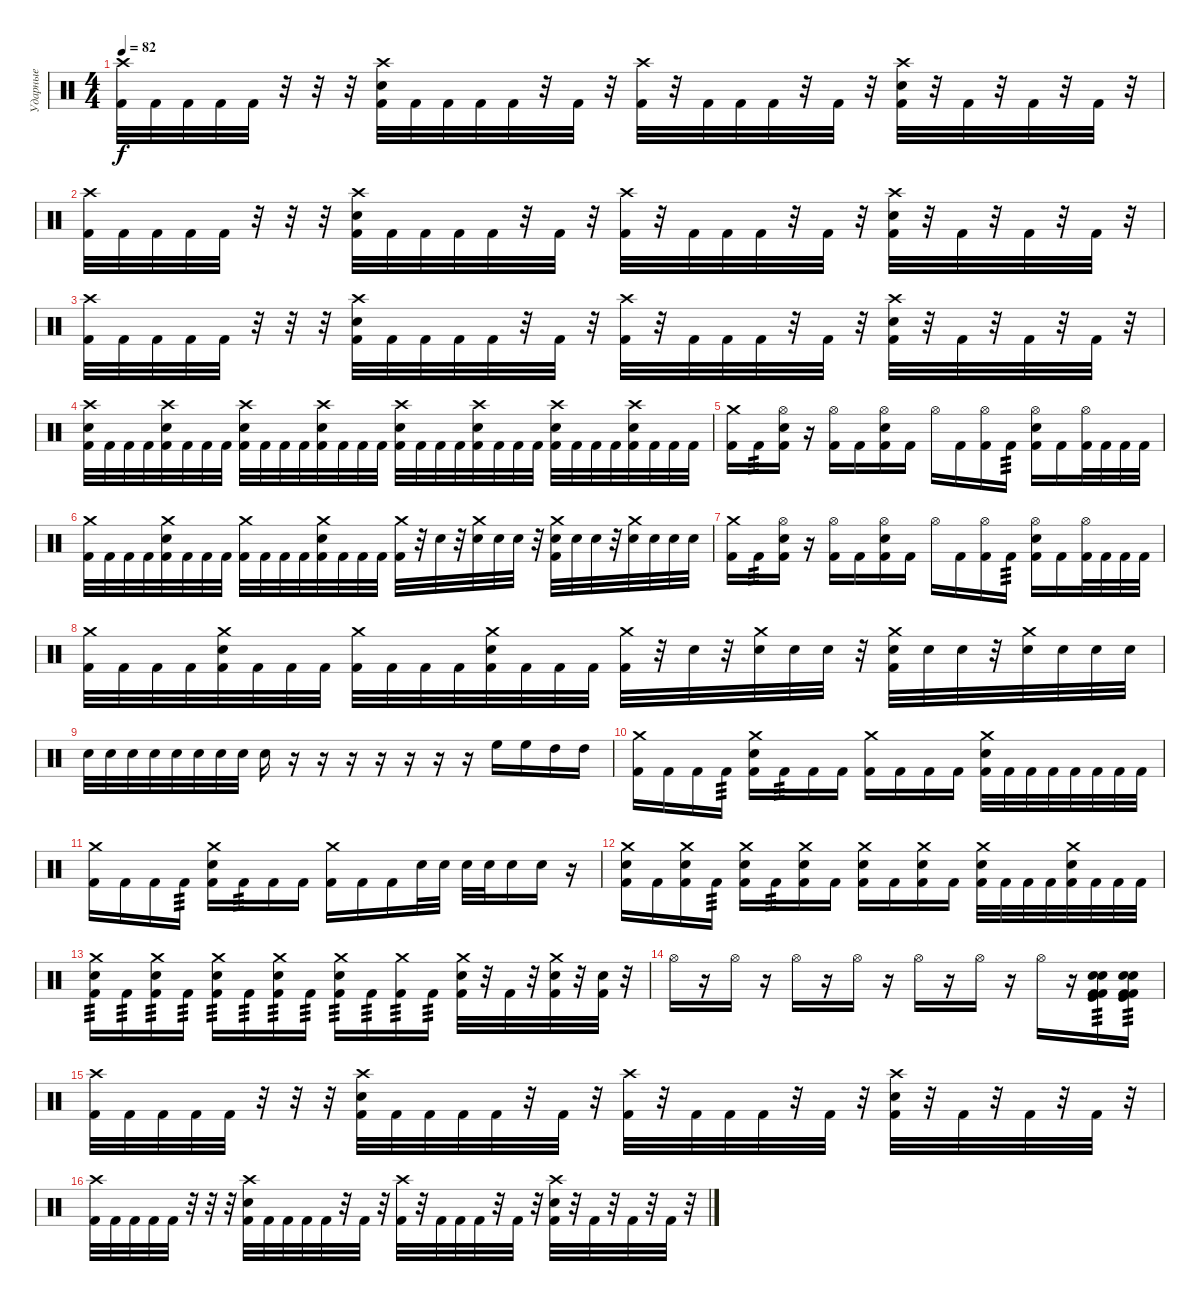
\track ("Ударные" "Ударные") {instrument percussion}
\staff {score}
\articulation defaults
\ts (4 4)
\tempo 82
\clef neutral
\ks c
("Crash high (hit)" "Kick (hit) 2").32{dy f} "Kick (hit) 2".32 "Kick (hit) 2".32 "Kick (hit) 2".32 "Kick (hit) 2".32 r.32 r.32 r.32 ("Crash high (hit)" "Snare (hit) 2" "Kick (hit) 2").32 "Kick (hit) 2".32 "Kick (hit) 2".32 "Kick (hit) 2".32 "Kick (hit) 2".32 r.32 "Kick (hit) 2".32 r.32 ("Crash high (hit)" "Kick (hit) 2").32 r.32 "Kick (hit) 2".32 "Kick (hit) 2".32 "Kick (hit) 2".32 r.32 "Kick (hit) 2".32 r.32 ("Crash high (hit)" "Snare (hit) 2" "Kick (hit) 2").32 r.32 "Kick (hit) 2".32 r.32 "Kick (hit) 2".32 r.32 "Kick (hit) 2".32 r.32 |
("Crash high (hit)" "Kick (hit) 2").32 "Kick (hit) 2".32 "Kick (hit) 2".32 "Kick (hit) 2".32 "Kick (hit) 2".32 r.32 r.32 r.32 ("Crash high (hit)" "Snare (hit) 2" "Kick (hit) 2").32 "Kick (hit) 2".32 "Kick (hit) 2".32 "Kick (hit) 2".32 "Kick (hit) 2".32 r.32 "Kick (hit) 2".32 r.32 ("Crash high (hit)" "Kick (hit) 2").32 r.32 "Kick (hit) 2".32 "Kick (hit) 2".32 "Kick (hit) 2".32 r.32 "Kick (hit) 2".32 r.32 ("Crash high (hit)" "Snare (hit) 2" "Kick (hit) 2").32 r.32 "Kick (hit) 2".32 r.32 "Kick (hit) 2".32 r.32 "Kick (hit) 2".32 r.32 |
("Crash high (hit)" "Kick (hit) 2").32 "Kick (hit) 2".32 "Kick (hit) 2".32 "Kick (hit) 2".32 "Kick (hit) 2".32 r.32 r.32 r.32 ("Crash high (hit)" "Snare (hit) 2" "Kick (hit) 2").32 "Kick (hit) 2".32 "Kick (hit) 2".32 "Kick (hit) 2".32 "Kick (hit) 2".32 r.32 "Kick (hit) 2".32 r.32 ("Crash high (hit)" "Kick (hit) 2").32 r.32 "Kick (hit) 2".32 "Kick (hit) 2".32 "Kick (hit) 2".32 r.32 "Kick (hit) 2".32 r.32 ("Crash high (hit)" "Snare (hit) 2" "Kick (hit) 2").32 r.32 "Kick (hit) 2".32 r.32 "Kick (hit) 2".32 r.32 "Kick (hit) 2".32 r.32 |
("Crash high (hit)" "Snare (hit) 2" "Kick (hit) 2").32 "Kick (hit) 2".32 "Kick (hit) 2".32 "Kick (hit) 2".32 ("Crash high (hit)" "Snare (hit) 2" "Kick (hit) 2").32 "Kick (hit) 2".32 "Kick (hit) 2".32 "Kick (hit) 2".32 ("Crash high (hit)" "Snare (hit) 2" "Kick (hit) 2").32 "Kick (hit) 2".32 "Kick (hit) 2".32 "Kick (hit) 2".32 ("Crash high (hit)" "Snare (hit) 2" "Kick (hit) 2").32 "Kick (hit) 2".32 "Kick (hit) 2".32 "Kick (hit) 2".32 ("Crash high (hit)" "Snare (hit) 2" "Kick (hit) 2").32 "Kick (hit) 2".32 "Kick (hit) 2".32 "Kick (hit) 2".32 ("Crash high (hit)" "Snare (hit) 2" "Kick (hit) 2").32 "Kick (hit) 2".32 "Kick (hit) 2".32 "Kick (hit) 2".32 ("Crash high (hit)" "Snare (hit) 2" "Kick (hit) 2").32 "Kick (hit) 2".32 "Kick (hit) 2".32 "Kick (hit) 2".32 ("Crash high (hit)" "Snare (hit) 2" "Kick (hit) 2").32 "Kick (hit) 2".32 "Kick (hit) 2".32 "Kick (hit) 2".32 |
("Crash medium (hit)" "Kick (hit) 2").16 "Kick (hit) 2".16{tp 3} ("Hi-Hat (open)" "Snare (hit) 2" "Kick (hit) 2").16 r.16 ("Hi-Hat (open)" "Kick (hit) 2").16 "Kick (hit) 2".16 ("Hi-Hat (open)" "Snare (hit) 2" "Kick (hit) 2").16 "Kick (hit) 2".16 "Hi-Hat (open)".16 "Kick (hit) 2".16 ("Hi-Hat (open)" "Kick (hit) 2").16 "Kick (hit) 2".16{tp 3} ("Hi-Hat (open)" "Snare (hit) 2" "Kick (hit) 2").16 "Kick (hit) 2".16 ("Hi-Hat (open)" "Kick (hit) 2").32 "Kick (hit) 2".32 "Kick (hit) 2".32 "Kick (hit) 2".32 |
("Crash medium (hit)" "Kick (hit) 2").32 "Kick (hit) 2".32 "Kick (hit) 2".32 "Kick (hit) 2".32 ("Crash medium (hit)" "Snare (hit) 2" "Kick (hit) 2").32 "Kick (hit) 2".32 "Kick (hit) 2".32 "Kick (hit) 2".32 ("Crash medium (hit)" "Kick (hit) 2").32 "Kick (hit) 2".32 "Kick (hit) 2".32 "Kick (hit) 2".32 ("Crash medium (hit)" "Snare (hit) 2" "Kick (hit) 2").32 "Kick (hit) 2".32 "Kick (hit) 2".32 "Kick (hit) 2".32 ("Crash medium (hit)" "Kick (hit) 2").32 r.32 "Snare (hit) 2".32 r.32 ("Crash medium (hit)" "Snare (hit) 2").32 "Snare (hit) 2".32 "Snare (hit) 2".32 r.32 ("Crash medium (hit)" "Snare (hit) 2" "Kick (hit) 2").32 "Snare (hit) 2".32 "Snare (hit) 2".32 r.32 ("Crash medium (hit)" "Snare (hit) 2").32 "Snare (hit) 2".32 "Snare (hit) 2".32 "Snare (hit) 2".32 |
("Crash medium (hit)" "Kick (hit) 2").16 "Kick (hit) 2".16{tp 3} ("Hi-Hat (open)" "Snare (hit) 2" "Kick (hit) 2").16 r.16 ("Hi-Hat (open)" "Kick (hit) 2").16 "Kick (hit) 2".16 ("Hi-Hat (open)" "Snare (hit) 2" "Kick (hit) 2").16 "Kick (hit) 2".16 "Hi-Hat (open)".16 "Kick (hit) 2".16 ("Hi-Hat (open)" "Kick (hit) 2").16 "Kick (hit) 2".16{tp 3} ("Hi-Hat (open)" "Snare (hit) 2" "Kick (hit) 2").16 "Kick (hit) 2".16 ("Hi-Hat (open)" "Kick (hit) 2").32 "Kick (hit) 2".32 "Kick (hit) 2".32 "Kick (hit) 2".32 |
("Crash medium (hit)" "Kick (hit) 2").32 "Kick (hit) 2".32 "Kick (hit) 2".32 "Kick (hit) 2".32 ("Crash medium (hit)" "Snare (hit) 2" "Kick (hit) 2").32 "Kick (hit) 2".32 "Kick (hit) 2".32 "Kick (hit) 2".32 ("Crash medium (hit)" "Kick (hit) 2").32 "Kick (hit) 2".32 "Kick (hit) 2".32 "Kick (hit) 2".32 ("Crash medium (hit)" "Snare (hit) 2" "Kick (hit) 2").32 "Kick (hit) 2".32 "Kick (hit) 2".32 "Kick (hit) 2".32 ("Crash medium (hit)" "Kick (hit) 2").32 r.32 "Snare (hit) 2".32 r.32 ("Crash medium (hit)" "Snare (hit) 2").32 "Snare (hit) 2".32 "Snare (hit) 2".32 r.32 ("Crash medium (hit)" "Snare (hit) 2" "Kick (hit) 2").32 "Snare (hit) 2".32 "Snare (hit) 2".32 r.32 ("Crash medium (hit)" "Snare (hit) 2").32 "Snare (hit) 2".32 "Snare (hit) 2".32 "Snare (hit) 2".32 |
"Snare (hit) 2".32 "Snare (hit) 2".32 "Snare (hit) 2".32 "Snare (hit) 2".32 "Snare (hit) 2".32 "Snare (hit) 2".32 "Snare (hit) 2".32 "Snare (hit) 2".32 "Snare (hit) 2".16 r.16 r.16 r.16 r.16 r.16 r.16 r.16 "High Floor Tom (hit)".16 "High Floor Tom (hit)".16 "High Tom (hit)".16 "High Tom (hit)".16 |
("Crash medium (hit)" "Kick (hit) 2").16 "Kick (hit) 2".16 "Kick (hit) 2".16 "Kick (hit) 2".16{tp 3} ("Crash medium (hit)" "Snare (hit) 2" "Kick (hit) 2").16 "Kick (hit) 2".16{tp 3} "Kick (hit) 2".16 "Kick (hit) 2".16 ("Crash medium (hit)" "Kick (hit) 2").16 "Kick (hit) 2".16 "Kick (hit) 2".16 "Kick (hit) 2".16 ("Crash medium (hit)" "Snare (hit) 2" "Kick (hit) 2").32 "Kick (hit) 2".32 "Kick (hit) 2".32 "Kick (hit) 2".32 "Kick (hit) 2".32 "Kick (hit) 2".32 "Kick (hit) 2".32 "Kick (hit) 2".32 |
("Crash medium (hit)" "Kick (hit) 2").16 "Kick (hit) 2".16 "Kick (hit) 2".16 "Kick (hit) 2".16{tp 3} ("Crash medium (hit)" "Snare (hit) 2" "Kick (hit) 2").16 "Kick (hit) 2".16{tp 3} "Kick (hit) 2".16 "Kick (hit) 2".16 ("Crash medium (hit)" "Kick (hit) 2").16 "Kick (hit) 2".16 "Kick (hit) 2".16 "Snare (hit) 2".32 "Snare (hit) 2".32 "Snare (hit) 2".32 "Snare (hit) 2".32 "Snare (hit) 2".16 "Snare (hit) 2".16 r.16 |
("Crash medium (hit)" "Snare (hit) 2" "Kick (hit) 2").16 "Kick (hit) 2".16 ("Crash medium (hit)" "Snare (hit) 2" "Kick (hit) 2").16 "Kick (hit) 2".16{tp 3} ("Crash medium (hit)" "Snare (hit) 2" "Kick (hit) 2").16 "Kick (hit) 2".16{tp 3} ("Crash medium (hit)" "Snare (hit) 2" "Kick (hit) 2").16 "Kick (hit) 2".16 ("Crash medium (hit)" "Snare (hit) 2" "Kick (hit) 2").16 "Kick (hit) 2".16 ("Crash medium (hit)" "Snare (hit) 2" "Kick (hit) 2").16 "Kick (hit) 2".16 ("Crash medium (hit)" "Snare (hit) 2" "Kick (hit) 2").32 "Kick (hit) 2".32 "Kick (hit) 2".32 "Kick (hit) 2".32 ("Crash medium (hit)" "Snare (hit) 2" "Kick (hit) 2").32 "Kick (hit) 2".32 "Kick (hit) 2".32 "Kick (hit) 2".32 |
("Crash medium (hit)" "Snare (hit) 2" "Kick (hit) 2").16{tp 3} "Kick (hit) 2".16{tp 3} ("Crash medium (hit)" "Snare (hit) 2" "Kick (hit) 2").16{tp 3} "Kick (hit) 2".16{tp 3} ("Crash medium (hit)" "Snare (hit) 2" "Kick (hit) 2").16{tp 3} "Kick (hit) 2".16{tp 3} ("Crash medium (hit)" "Snare (hit) 2" "Kick (hit) 2").16{tp 3} "Kick (hit) 2".16{tp 3} ("Crash medium (hit)" "Snare (hit) 2" "Kick (hit) 2").16{tp 3} "Kick (hit) 2".16{tp 3} ("Crash medium (hit)" "Kick (hit) 2").16{tp 3} "Kick (hit) 2".16{tp 3} ("Crash medium (hit)" "Snare (hit) 2" "Kick (hit) 2").32 r.32 "Kick (hit) 2".32 r.32 ("Crash medium (hit)" "Snare (hit) 2" "Kick (hit) 2").32 r.32 ("Snare (hit) 2" "Kick (hit) 2").32 r.32 |
"Hi-Hat (open)".16 r.16 "Hi-Hat (open)".16 r.16 "Hi-Hat (open)".16 r.16 "Hi-Hat (open)".16 r.16 "Hi-Hat (open)".16 r.16 "Hi-Hat (open)".16 r.16 "Hi-Hat (open)".16 r.16 ("Kick (hit) 2" "Snare (hit) 2" "Kick (hit) 2" "Kick (hit)" "Electric Snare (hit)").16{tp 3} ("Kick (hit) 2" "Snare (hit) 2" "Kick (hit) 2" "Kick (hit)" "Electric Snare (hit)").16{tp 3} |
("Crash high (hit)" "Kick (hit) 2").32 "Kick (hit) 2".32 "Kick (hit) 2".32 "Kick (hit) 2".32 "Kick (hit) 2".32 r.32 r.32 r.32 ("Crash high (hit)" "Snare (hit) 2" "Kick (hit) 2").32 "Kick (hit) 2".32 "Kick (hit) 2".32 "Kick (hit) 2".32 "Kick (hit) 2".32 r.32 "Kick (hit) 2".32 r.32 ("Crash high (hit)" "Kick (hit) 2").32 r.32 "Kick (hit) 2".32 "Kick (hit) 2".32 "Kick (hit) 2".32 r.32 "Kick (hit) 2".32 r.32 ("Crash high (hit)" "Snare (hit) 2" "Kick (hit) 2").32 r.32 "Kick (hit) 2".32 r.32 "Kick (hit) 2".32 r.32 "Kick (hit) 2".32 r.32 |
("Crash high (hit)" "Kick (hit) 2").32 "Kick (hit) 2".32 "Kick (hit) 2".32 "Kick (hit) 2".32 "Kick (hit) 2".32 r.32 r.32 r.32 ("Crash high (hit)" "Snare (hit) 2" "Kick (hit) 2").32 "Kick (hit) 2".32 "Kick (hit) 2".32 "Kick (hit) 2".32 "Kick (hit) 2".32 r.32 "Kick (hit) 2".32 r.32 ("Crash high (hit)" "Kick (hit) 2").32 r.32 "Kick (hit) 2".32 "Kick (hit) 2".32 "Kick (hit) 2".32 r.32 "Kick (hit) 2".32 r.32 ("Crash high (hit)" "Snare (hit) 2" "Kick (hit) 2").32 r.32 "Kick (hit) 2".32 r.32 "Kick (hit) 2".32 r.32 "Kick (hit) 2".32 r.32
